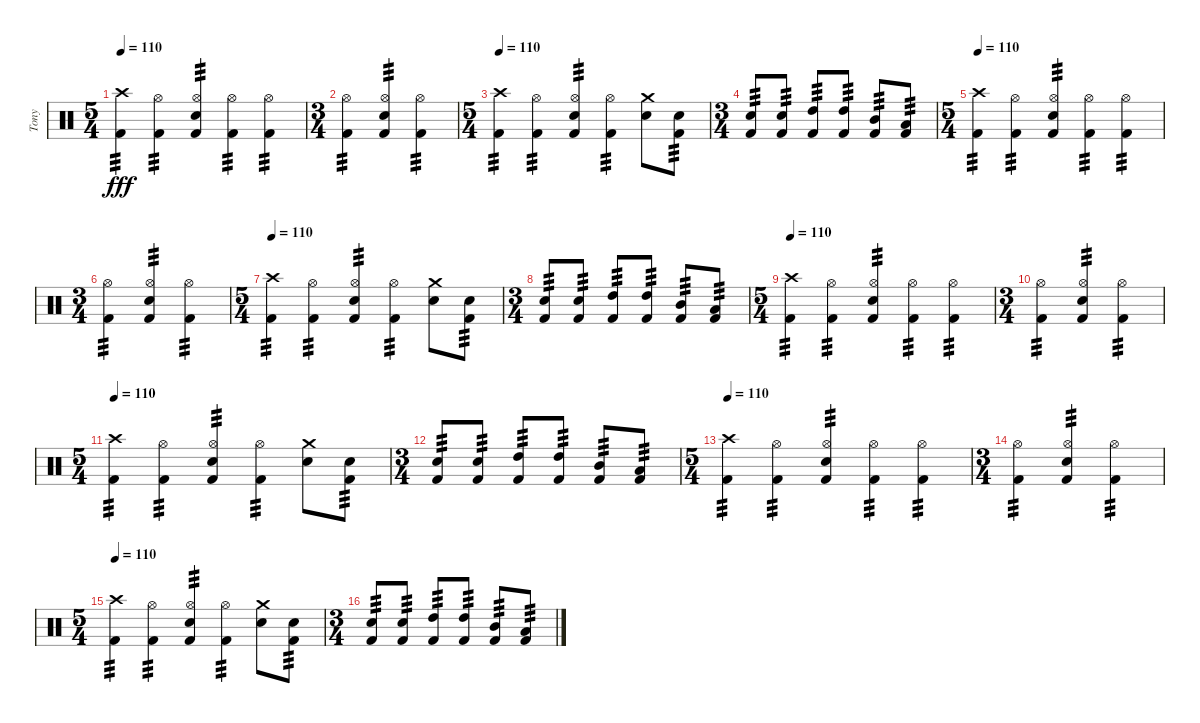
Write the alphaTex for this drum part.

\track ("Tony" "Tony") {instrument percussion}
\staff {score}
\articulation defaults
\ts (5 4)
\tempo 110
\clef neutral
\ks c
("Crash high (hit)" "Kick (hit) 2").4{tp 3 dy fff volume 9} ("Hi-Hat (open)" "Kick (hit) 2").4{tp 3} ("Hi-Hat (open)" "Snare (hit) 2" "Kick (hit) 2").4{tp 3} ("Hi-Hat (open)" "Kick (hit) 2").4{tp 3} ("Hi-Hat (open)" "Kick (hit) 2").4{tp 3} |
\ts (3 4)
("Hi-Hat (open)" "Kick (hit) 2").4{tp 3} ("Hi-Hat (open)" "Snare (hit) 2" "Kick (hit) 2").4{tp 3} ("Hi-Hat (open)" "Kick (hit) 2").4{tp 3} |
\ts (5 4)
\tempo 110
("Crash high (hit)" "Kick (hit) 2").4{tp 3} ("Hi-Hat (open)" "Kick (hit) 2").4{tp 3} ("Hi-Hat (open)" "Snare (hit) 2" "Kick (hit) 2").4{tp 3} ("Hi-Hat (open)" "Kick (hit) 2").4{tp 3} ("Crash medium (hit)" "Snare (hit) 2").8 ("Snare (hit) 2" "Kick (hit) 2").8{tp 3} |
\ts (3 4)
("Snare (hit) 2" "Kick (hit) 2").8{tp 3} ("Snare (hit) 2" "Kick (hit) 2").8{tp 3} ("High Tom (hit)" "Kick (hit) 2").8{tp 3} ("High Tom (hit)" "Kick (hit) 2").8{tp 3} ("Mid Tom (hit)" "Kick (hit) 2").8{tp 3} ("Low Tom (hit)" "Kick (hit) 2").8{tp 3} |
\ts (5 4)
\tempo 110
("Crash high (hit)" "Kick (hit) 2").4{tp 3 volume 6} ("Hi-Hat (open)" "Kick (hit) 2").4{tp 3} ("Hi-Hat (open)" "Snare (hit) 2" "Kick (hit) 2").4{tp 3} ("Hi-Hat (open)" "Kick (hit) 2").4{tp 3} ("Hi-Hat (open)" "Kick (hit) 2").4{tp 3} |
\ts (3 4)
("Hi-Hat (open)" "Kick (hit) 2").4{tp 3} ("Hi-Hat (open)" "Snare (hit) 2" "Kick (hit) 2").4{tp 3} ("Hi-Hat (open)" "Kick (hit) 2").4{tp 3} |
\ts (5 4)
\tempo 110
("Crash high (hit)" "Kick (hit) 2").4{tp 3} ("Hi-Hat (open)" "Kick (hit) 2").4{tp 3} ("Hi-Hat (open)" "Snare (hit) 2" "Kick (hit) 2").4{tp 3} ("Hi-Hat (open)" "Kick (hit) 2").4{tp 3} ("Crash medium (hit)" "Snare (hit) 2").8 ("Snare (hit) 2" "Kick (hit) 2").8{tp 3} |
\ts (3 4)
("Snare (hit) 2" "Kick (hit) 2").8{tp 3} ("Snare (hit) 2" "Kick (hit) 2").8{tp 3} ("High Tom (hit)" "Kick (hit) 2").8{tp 3} ("High Tom (hit)" "Kick (hit) 2").8{tp 3} ("Mid Tom (hit)" "Kick (hit) 2").8{tp 3} ("Low Tom (hit)" "Kick (hit) 2").8{tp 3} |
\ts (5 4)
\tempo 110
("Crash high (hit)" "Kick (hit) 2").4{tp 3 volume 3} ("Hi-Hat (open)" "Kick (hit) 2").4{tp 3} ("Hi-Hat (open)" "Snare (hit) 2" "Kick (hit) 2").4{tp 3} ("Hi-Hat (open)" "Kick (hit) 2").4{tp 3} ("Hi-Hat (open)" "Kick (hit) 2").4{tp 3} |
\ts (3 4)
("Hi-Hat (open)" "Kick (hit) 2").4{tp 3} ("Hi-Hat (open)" "Snare (hit) 2" "Kick (hit) 2").4{tp 3} ("Hi-Hat (open)" "Kick (hit) 2").4{tp 3} |
\ts (5 4)
\tempo 110
("Crash high (hit)" "Kick (hit) 2").4{tp 3} ("Hi-Hat (open)" "Kick (hit) 2").4{tp 3} ("Hi-Hat (open)" "Snare (hit) 2" "Kick (hit) 2").4{tp 3} ("Hi-Hat (open)" "Kick (hit) 2").4{tp 3} ("Crash medium (hit)" "Snare (hit) 2").8 ("Snare (hit) 2" "Kick (hit) 2").8{tp 3} |
\ts (3 4)
("Snare (hit) 2" "Kick (hit) 2").8{tp 3} ("Snare (hit) 2" "Kick (hit) 2").8{tp 3} ("High Tom (hit)" "Kick (hit) 2").8{tp 3} ("High Tom (hit)" "Kick (hit) 2").8{tp 3} ("Mid Tom (hit)" "Kick (hit) 2").8{tp 3} ("Low Tom (hit)" "Kick (hit) 2").8{tp 3} |
\ts (5 4)
\tempo 110
("Crash high (hit)" "Kick (hit) 2").4{tp 3 volume 1} ("Hi-Hat (open)" "Kick (hit) 2").4{tp 3} ("Hi-Hat (open)" "Snare (hit) 2" "Kick (hit) 2").4{tp 3} ("Hi-Hat (open)" "Kick (hit) 2").4{tp 3} ("Hi-Hat (open)" "Kick (hit) 2").4{tp 3} |
\ts (3 4)
("Hi-Hat (open)" "Kick (hit) 2").4{tp 3} ("Hi-Hat (open)" "Snare (hit) 2" "Kick (hit) 2").4{tp 3} ("Hi-Hat (open)" "Kick (hit) 2").4{tp 3} |
\ts (5 4)
\tempo 110
("Crash high (hit)" "Kick (hit) 2").4{tp 3 volume 0} ("Hi-Hat (open)" "Kick (hit) 2").4{tp 3} ("Hi-Hat (open)" "Snare (hit) 2" "Kick (hit) 2").4{tp 3} ("Hi-Hat (open)" "Kick (hit) 2").4{tp 3} ("Crash medium (hit)" "Snare (hit) 2").8 ("Snare (hit) 2" "Kick (hit) 2").8{tp 3} |
\ts (3 4)
("Snare (hit) 2" "Kick (hit) 2").8{tp 3} ("Snare (hit) 2" "Kick (hit) 2").8{tp 3} ("High Tom (hit)" "Kick (hit) 2").8{tp 3} ("High Tom (hit)" "Kick (hit) 2").8{tp 3} ("Mid Tom (hit)" "Kick (hit) 2").8{tp 3} ("Low Tom (hit)" "Kick (hit) 2").8{tp 3}
